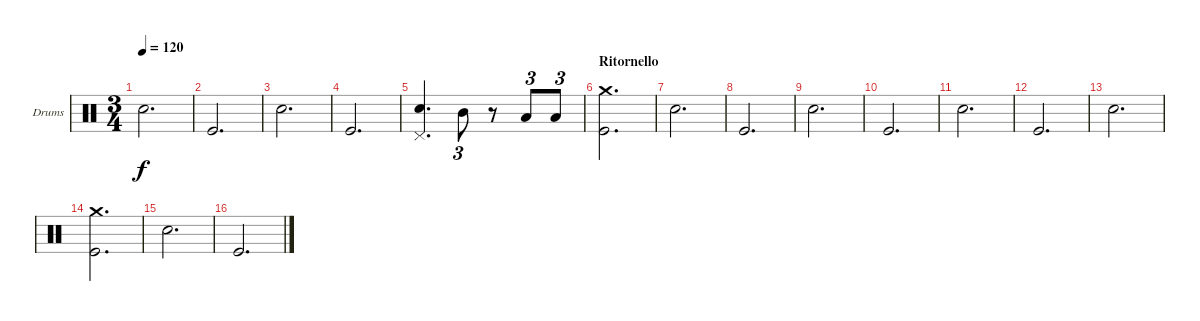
\bracketExtendMode groupsimilarinstruments
\firstSystemTrackNameOrientation horizontal
\otherSystemsTrackNameOrientation horizontal
\track ("Drumkit" "Drums") {instrument percussion}
\staff {score}
\articulation defaults
\ts (3 4)
\tempo 120
\clef neutral
\ks c "Snare (hit) 2".2{d dy f}
|
"Kick (hit)".2{d} |
"Snare (hit) 2".2{d} |
"Kick (hit)".2{d} |
("Snare (hit) 2" "Pedal Hi-Hat (hit)").4{d} "Mid Tom (hit)".8{tu (3 2)} r.8 "Low Tom (hit)".8{tu (3 2)} "Low Tom (hit)".8{tu (3 2)} |
\section ("" "Ritornello")
("Crash medium (hit)" "Kick (hit)").2{d} |
"Snare (hit) 2".2{d} |
"Kick (hit)".2{d} |
"Snare (hit) 2".2{d} |
"Kick (hit)".2{d} |
"Snare (hit) 2".2{d} |
"Kick (hit)".2{d} |
"Snare (hit) 2".2{d} |
("Crash medium (hit)" "Kick (hit)").2{d} |
"Snare (hit) 2".2{d} |
"Kick (hit)".2{d}
